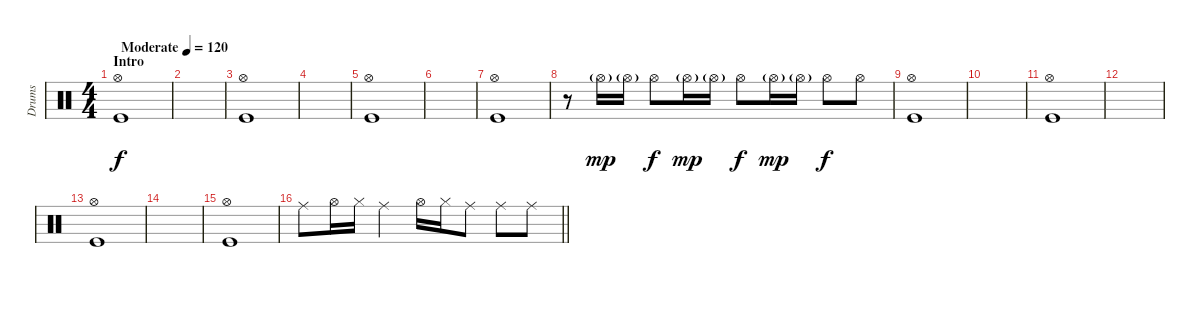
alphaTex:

\track ("Drums" "Drums") {instrument percussion}
\staff {score}
\articulation defaults
\ts (4 4)
\section ("" "Intro")
\tempo (120 "Moderate")
\clef neutral
\ks c
("Hi-Hat (open)" "Kick (hit)").1{dy f} |
|
("Hi-Hat (open)" "Kick (hit)").1 |
|
("Hi-Hat (open)" "Kick (hit)").1 |
|
("Hi-Hat (open)" "Kick (hit)").1 |
r.8 "Hi-Hat (open)"{g}.16{dy mp} "Hi-Hat (open)"{g}.16 "Hi-Hat (open)".8{dy f} "Hi-Hat (open)"{g}.16{dy mp} "Hi-Hat (open)"{g}.16 "Hi-Hat (open)".8{dy f} "Hi-Hat (open)"{g}.16{dy mp} "Hi-Hat (open)"{g}.16 "Hi-Hat (open)".8{dy f} "Hi-Hat (open)".8 |
("Hi-Hat (open)" "Kick (hit)").1 |
|
("Hi-Hat (open)" "Kick (hit)").1 |
|
("Hi-Hat (open)" "Kick (hit)").1 |
|
("Hi-Hat (open)" "Kick (hit)").1 |
\barLineRight lightlight "Ride (middle)".8 "Hi-Hat (open)".16 "Hi-Hat (closed)".16 "Ride (middle)".4 "Hi-Hat (open)".16 "Hi-Hat (closed)".16 "Ride (middle)".8 "Ride (middle)".8 "Ride (middle)".8
